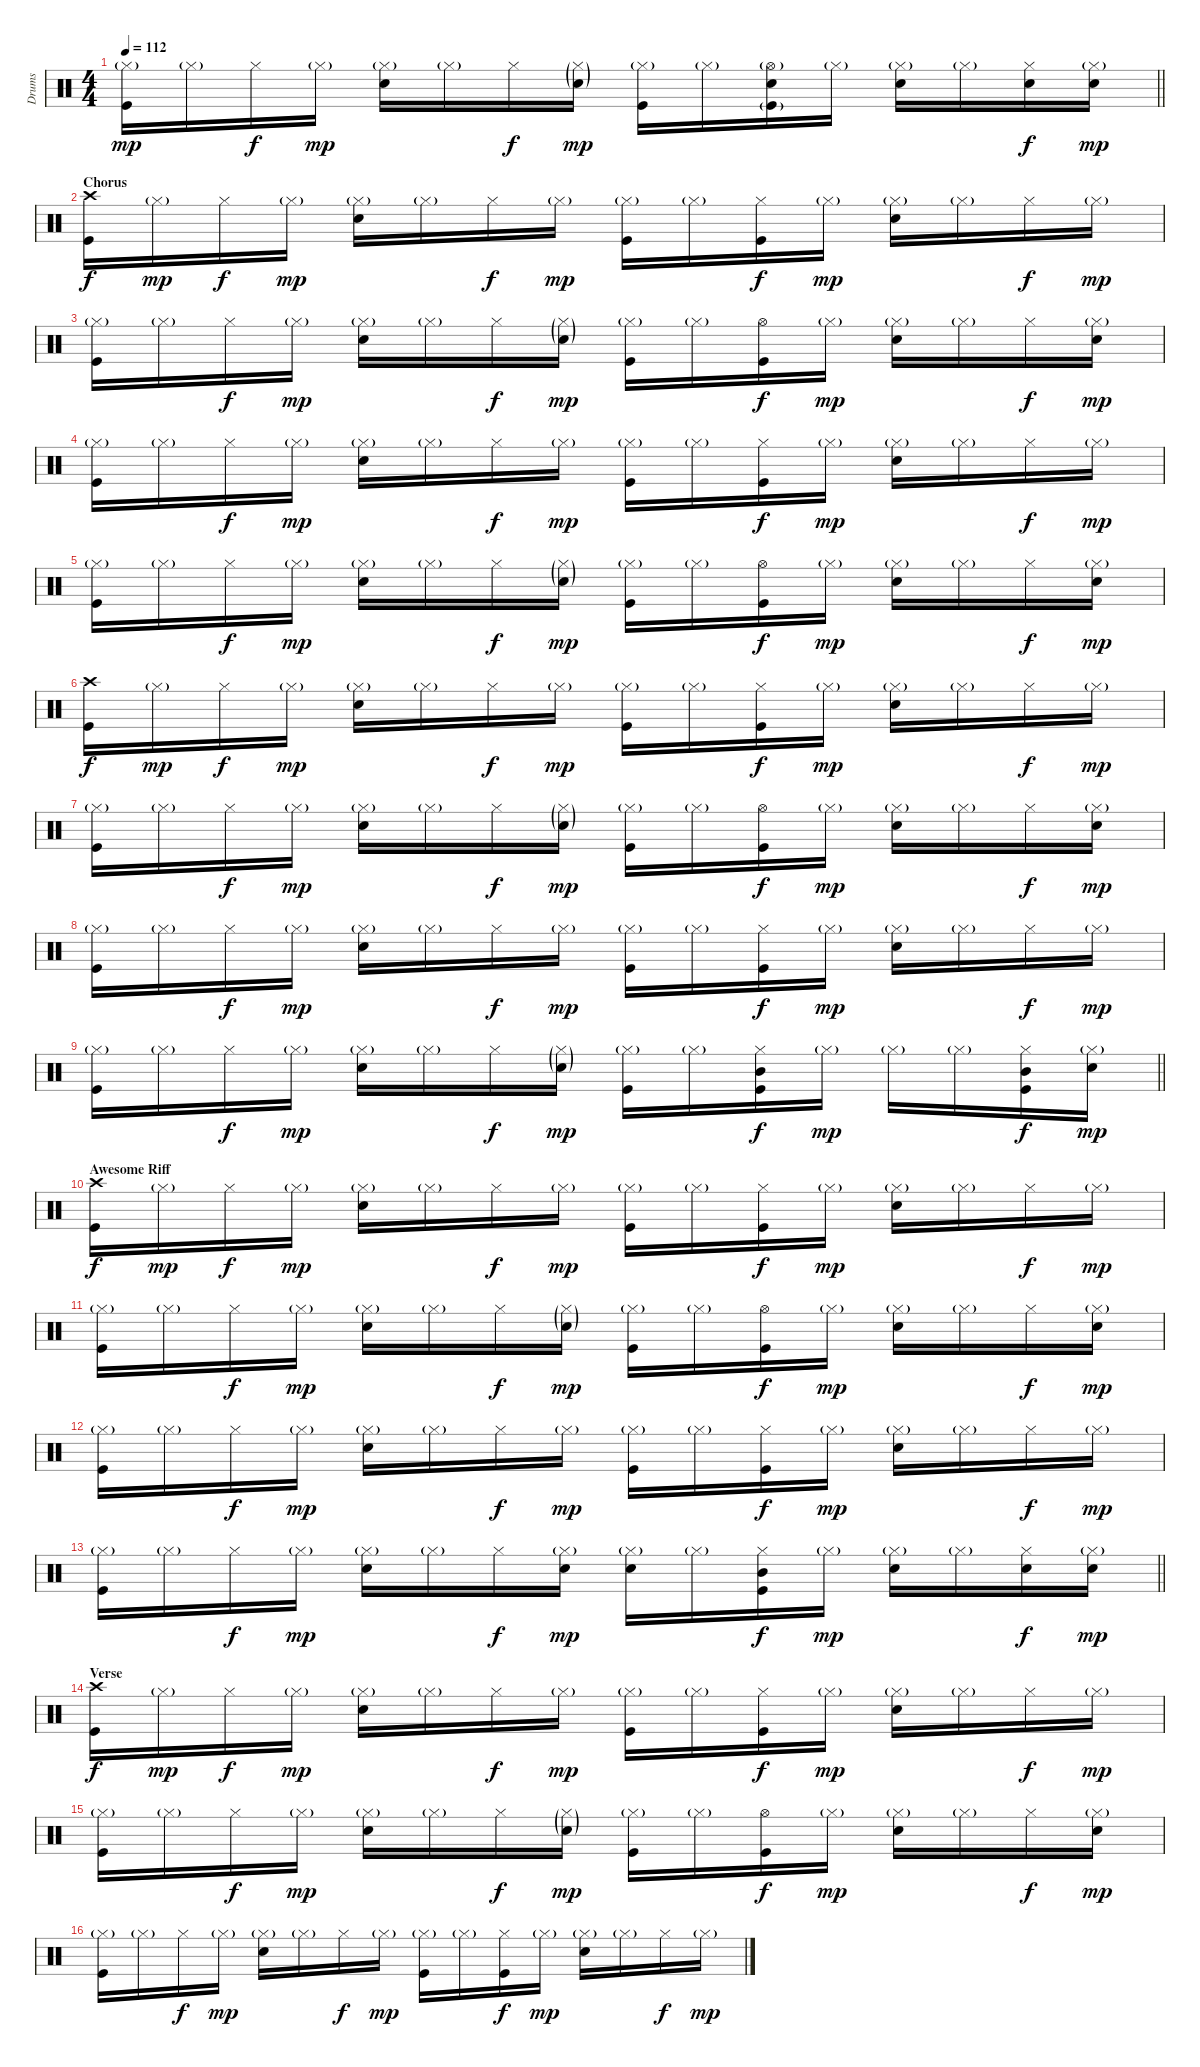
\track ("Drums" "Drums") {instrument percussion}
\staff {score}
\articulation defaults
\ts (4 4)
\tempo 112
\clef neutral
\barLineRight lightlight
\ks c
("Hi-Hat (closed)"{g} "Kick (hit)").16{dy mp} "Hi-Hat (closed)"{g}.16 "Hi-Hat (closed)".16{dy f} "Hi-Hat (closed)"{g}.16{dy mp} ("Hi-Hat (closed)"{g} "Snare (hit) 2").16 "Hi-Hat (closed)"{g}.16 "Hi-Hat (closed)".16{dy f} ("Hi-Hat (closed)"{g} "Snare (hit) 2"{g}).16{dy mp} ("Hi-Hat (closed)"{g} "Kick (hit)").16 "Hi-Hat (closed)"{g}.16 ("Hi-Hat (open)"{g} "Snare (hit) 2" "Kick (hit)"{g}).16 "Hi-Hat (closed)"{g}.16 ("Hi-Hat (closed)"{g} "Snare (hit) 2").16 "Hi-Hat (closed)"{g}.16 ("Hi-Hat (closed)" "Snare (hit) 2").16{dy f} ("Hi-Hat (closed)"{g} "Snare (hit) 2").16{dy mp} |
\section ("" "Chorus")
("Crash high (hit)" "Kick (hit)").16{dy f} "Hi-Hat (closed)"{g}.16{dy mp} "Hi-Hat (closed)".16{dy f} "Hi-Hat (closed)"{g}.16{dy mp} ("Hi-Hat (closed)"{g} "Snare (hit) 2").16 "Hi-Hat (closed)"{g}.16 "Hi-Hat (closed)".16{dy f} "Hi-Hat (closed)"{g}.16{dy mp} ("Hi-Hat (closed)"{g} "Kick (hit)").16 "Hi-Hat (closed)"{g}.16 ("Hi-Hat (closed)" "Kick (hit)").16{dy f} "Hi-Hat (closed)"{g}.16{dy mp} ("Hi-Hat (closed)"{g} "Snare (hit) 2").16 "Hi-Hat (closed)"{g}.16 "Hi-Hat (closed)".16{dy f} "Hi-Hat (closed)"{g}.16{dy mp} |
("Hi-Hat (closed)"{g} "Kick (hit)").16 "Hi-Hat (closed)"{g}.16 "Hi-Hat (closed)".16{dy f} "Hi-Hat (closed)"{g}.16{dy mp} ("Hi-Hat (closed)"{g} "Snare (hit) 2").16 "Hi-Hat (closed)"{g}.16 "Hi-Hat (closed)".16{dy f} ("Hi-Hat (closed)"{g} "Snare (hit) 2"{g}).16{dy mp} ("Hi-Hat (closed)"{g} "Kick (hit)").16 "Hi-Hat (closed)"{g}.16 ("Hi-Hat (open)" "Kick (hit)").16{dy f} "Hi-Hat (closed)"{g}.16{dy mp} ("Hi-Hat (closed)"{g} "Snare (hit) 2").16 "Hi-Hat (closed)"{g}.16 "Hi-Hat (closed)".16{dy f} ("Hi-Hat (closed)"{g} "Snare (hit) 2").16{dy mp} |
("Hi-Hat (closed)"{g} "Kick (hit)").16 "Hi-Hat (closed)"{g}.16 "Hi-Hat (closed)".16{dy f} "Hi-Hat (closed)"{g}.16{dy mp} ("Hi-Hat (closed)"{g} "Snare (hit) 2").16 "Hi-Hat (closed)"{g}.16 "Hi-Hat (closed)".16{dy f} "Hi-Hat (closed)"{g}.16{dy mp} ("Hi-Hat (closed)"{g} "Kick (hit)").16 "Hi-Hat (closed)"{g}.16 ("Hi-Hat (closed)" "Kick (hit)").16{dy f} "Hi-Hat (closed)"{g}.16{dy mp} ("Hi-Hat (closed)"{g} "Snare (hit) 2").16 "Hi-Hat (closed)"{g}.16 "Hi-Hat (closed)".16{dy f} "Hi-Hat (closed)"{g}.16{dy mp} |
("Hi-Hat (closed)"{g} "Kick (hit)").16 "Hi-Hat (closed)"{g}.16 "Hi-Hat (closed)".16{dy f} "Hi-Hat (closed)"{g}.16{dy mp} ("Hi-Hat (closed)"{g} "Snare (hit) 2").16 "Hi-Hat (closed)"{g}.16 "Hi-Hat (closed)".16{dy f} ("Hi-Hat (closed)"{g} "Snare (hit) 2"{g}).16{dy mp} ("Hi-Hat (closed)"{g} "Kick (hit)").16 "Hi-Hat (closed)"{g}.16 ("Hi-Hat (open)" "Kick (hit)").16{dy f} "Hi-Hat (closed)"{g}.16{dy mp} ("Hi-Hat (closed)"{g} "Snare (hit) 2").16 "Hi-Hat (closed)"{g}.16 "Hi-Hat (closed)".16{dy f} ("Hi-Hat (closed)"{g} "Snare (hit) 2").16{dy mp} |
("Crash high (hit)" "Kick (hit)").16{dy f} "Hi-Hat (closed)"{g}.16{dy mp} "Hi-Hat (closed)".16{dy f} "Hi-Hat (closed)"{g}.16{dy mp} ("Hi-Hat (closed)"{g} "Snare (hit) 2").16 "Hi-Hat (closed)"{g}.16 "Hi-Hat (closed)".16{dy f} "Hi-Hat (closed)"{g}.16{dy mp} ("Hi-Hat (closed)"{g} "Kick (hit)").16 "Hi-Hat (closed)"{g}.16 ("Hi-Hat (closed)" "Kick (hit)").16{dy f} "Hi-Hat (closed)"{g}.16{dy mp} ("Hi-Hat (closed)"{g} "Snare (hit) 2").16 "Hi-Hat (closed)"{g}.16 "Hi-Hat (closed)".16{dy f} "Hi-Hat (closed)"{g}.16{dy mp} |
("Hi-Hat (closed)"{g} "Kick (hit)").16 "Hi-Hat (closed)"{g}.16 "Hi-Hat (closed)".16{dy f} "Hi-Hat (closed)"{g}.16{dy mp} ("Hi-Hat (closed)"{g} "Snare (hit) 2").16 "Hi-Hat (closed)"{g}.16 "Hi-Hat (closed)".16{dy f} ("Hi-Hat (closed)"{g} "Snare (hit) 2"{g}).16{dy mp} ("Hi-Hat (closed)"{g} "Kick (hit)").16 "Hi-Hat (closed)"{g}.16 ("Hi-Hat (open)" "Kick (hit)").16{dy f} "Hi-Hat (closed)"{g}.16{dy mp} ("Hi-Hat (closed)"{g} "Snare (hit) 2").16 "Hi-Hat (closed)"{g}.16 "Hi-Hat (closed)".16{dy f} ("Hi-Hat (closed)"{g} "Snare (hit) 2").16{dy mp} |
("Hi-Hat (closed)"{g} "Kick (hit)").16 "Hi-Hat (closed)"{g}.16 "Hi-Hat (closed)".16{dy f} "Hi-Hat (closed)"{g}.16{dy mp} ("Hi-Hat (closed)"{g} "Snare (hit) 2").16 "Hi-Hat (closed)"{g}.16 "Hi-Hat (closed)".16{dy f} "Hi-Hat (closed)"{g}.16{dy mp} ("Hi-Hat (closed)"{g} "Kick (hit)").16 "Hi-Hat (closed)"{g}.16 ("Hi-Hat (closed)" "Kick (hit)").16{dy f} "Hi-Hat (closed)"{g}.16{dy mp} ("Hi-Hat (closed)"{g} "Snare (hit) 2").16 "Hi-Hat (closed)"{g}.16 "Hi-Hat (closed)".16{dy f} "Hi-Hat (closed)"{g}.16{dy mp} |
\barLineRight lightlight
("Hi-Hat (closed)"{g} "Kick (hit)").16 "Hi-Hat (closed)"{g}.16 "Hi-Hat (closed)".16{dy f} "Hi-Hat (closed)"{g}.16{dy mp} ("Hi-Hat (closed)"{g} "Snare (hit) 2").16 "Hi-Hat (closed)"{g}.16 "Hi-Hat (closed)".16{dy f} ("Hi-Hat (closed)"{g} "Snare (hit) 2"{g}).16{dy mp} ("Hi-Hat (closed)"{g} "Kick (hit)").16 "Hi-Hat (closed)"{g}.16 ("Hi-Hat (closed)" "Mid Tom (hit)" "Kick (hit)").16{dy f} "Hi-Hat (closed)"{g}.16{dy mp} "Hi-Hat (closed)"{g}.16 "Hi-Hat (closed)"{g}.16 ("Hi-Hat (closed)" "Mid Tom (hit)" "Kick (hit)").16{dy f} ("Hi-Hat (closed)"{g} "Snare (hit) 2").16{dy mp} |
\section ("" "Awesome Riff")
("Crash high (hit)" "Kick (hit)").16{dy f} "Hi-Hat (closed)"{g}.16{dy mp} "Hi-Hat (closed)".16{dy f} "Hi-Hat (closed)"{g}.16{dy mp} ("Hi-Hat (closed)"{g} "Snare (hit) 2").16 "Hi-Hat (closed)"{g}.16 "Hi-Hat (closed)".16{dy f} "Hi-Hat (closed)"{g}.16{dy mp} ("Hi-Hat (closed)"{g} "Kick (hit)").16 "Hi-Hat (closed)"{g}.16 ("Hi-Hat (closed)" "Kick (hit)").16{dy f} "Hi-Hat (closed)"{g}.16{dy mp} ("Hi-Hat (closed)"{g} "Snare (hit) 2").16 "Hi-Hat (closed)"{g}.16 "Hi-Hat (closed)".16{dy f} "Hi-Hat (closed)"{g}.16{dy mp} |
("Hi-Hat (closed)"{g} "Kick (hit)").16 "Hi-Hat (closed)"{g}.16 "Hi-Hat (closed)".16{dy f} "Hi-Hat (closed)"{g}.16{dy mp} ("Hi-Hat (closed)"{g} "Snare (hit) 2").16 "Hi-Hat (closed)"{g}.16 "Hi-Hat (closed)".16{dy f} ("Hi-Hat (closed)"{g} "Snare (hit) 2"{g}).16{dy mp} ("Hi-Hat (closed)"{g} "Kick (hit)").16 "Hi-Hat (closed)"{g}.16 ("Hi-Hat (open)" "Kick (hit)").16{dy f} "Hi-Hat (closed)"{g}.16{dy mp} ("Hi-Hat (closed)"{g} "Snare (hit) 2").16 "Hi-Hat (closed)"{g}.16 "Hi-Hat (closed)".16{dy f} ("Hi-Hat (closed)"{g} "Snare (hit) 2").16{dy mp} |
("Hi-Hat (closed)"{g} "Kick (hit)").16 "Hi-Hat (closed)"{g}.16 "Hi-Hat (closed)".16{dy f} "Hi-Hat (closed)"{g}.16{dy mp} ("Hi-Hat (closed)"{g} "Snare (hit) 2").16 "Hi-Hat (closed)"{g}.16 "Hi-Hat (closed)".16{dy f} "Hi-Hat (closed)"{g}.16{dy mp} ("Hi-Hat (closed)"{g} "Kick (hit)").16 "Hi-Hat (closed)"{g}.16 ("Hi-Hat (closed)" "Kick (hit)").16{dy f} "Hi-Hat (closed)"{g}.16{dy mp} ("Hi-Hat (closed)"{g} "Snare (hit) 2").16 "Hi-Hat (closed)"{g}.16 "Hi-Hat (closed)".16{dy f} "Hi-Hat (closed)"{g}.16{dy mp} |
\barLineRight lightlight
("Hi-Hat (closed)"{g} "Kick (hit)").16 "Hi-Hat (closed)"{g}.16 "Hi-Hat (closed)".16{dy f} "Hi-Hat (closed)"{g}.16{dy mp} ("Hi-Hat (closed)"{g} "Snare (hit) 2").16 "Hi-Hat (closed)"{g}.16 "Hi-Hat (closed)".16{dy f} ("Hi-Hat (closed)"{g} "Snare (hit) 2").16{dy mp} ("Hi-Hat (closed)"{g} "Snare (hit) 2").16 "Hi-Hat (closed)"{g}.16 ("Hi-Hat (closed)" "Mid Tom (hit)" "Kick (hit)").16{dy f} "Hi-Hat (closed)"{g}.16{dy mp} ("Hi-Hat (closed)"{g} "Snare (hit) 2").16 "Hi-Hat (closed)"{g}.16 ("Hi-Hat (closed)" "Snare (hit) 2").16{dy f} ("Hi-Hat (closed)"{g} "Snare (hit) 2").16{dy mp} |
\section ("" "Verse")
("Crash high (hit)" "Kick (hit)").16{dy f} "Hi-Hat (closed)"{g}.16{dy mp} "Hi-Hat (closed)".16{dy f} "Hi-Hat (closed)"{g}.16{dy mp} ("Hi-Hat (closed)"{g} "Snare (hit) 2").16 "Hi-Hat (closed)"{g}.16 "Hi-Hat (closed)".16{dy f} "Hi-Hat (closed)"{g}.16{dy mp} ("Hi-Hat (closed)"{g} "Kick (hit)").16 "Hi-Hat (closed)"{g}.16 ("Hi-Hat (closed)" "Kick (hit)").16{dy f} "Hi-Hat (closed)"{g}.16{dy mp} ("Hi-Hat (closed)"{g} "Snare (hit) 2").16 "Hi-Hat (closed)"{g}.16 "Hi-Hat (closed)".16{dy f} "Hi-Hat (closed)"{g}.16{dy mp} |
("Hi-Hat (closed)"{g} "Kick (hit)").16 "Hi-Hat (closed)"{g}.16 "Hi-Hat (closed)".16{dy f} "Hi-Hat (closed)"{g}.16{dy mp} ("Hi-Hat (closed)"{g} "Snare (hit) 2").16 "Hi-Hat (closed)"{g}.16 "Hi-Hat (closed)".16{dy f} ("Hi-Hat (closed)"{g} "Snare (hit) 2"{g}).16{dy mp} ("Hi-Hat (closed)"{g} "Kick (hit)").16 "Hi-Hat (closed)"{g}.16 ("Hi-Hat (open)" "Kick (hit)").16{dy f} "Hi-Hat (closed)"{g}.16{dy mp} ("Hi-Hat (closed)"{g} "Snare (hit) 2").16 "Hi-Hat (closed)"{g}.16 "Hi-Hat (closed)".16{dy f} ("Hi-Hat (closed)"{g} "Snare (hit) 2").16{dy mp} |
("Hi-Hat (closed)"{g} "Kick (hit)").16 "Hi-Hat (closed)"{g}.16 "Hi-Hat (closed)".16{dy f} "Hi-Hat (closed)"{g}.16{dy mp} ("Hi-Hat (closed)"{g} "Snare (hit) 2").16 "Hi-Hat (closed)"{g}.16 "Hi-Hat (closed)".16{dy f} "Hi-Hat (closed)"{g}.16{dy mp} ("Hi-Hat (closed)"{g} "Kick (hit)").16 "Hi-Hat (closed)"{g}.16 ("Hi-Hat (closed)" "Kick (hit)").16{dy f} "Hi-Hat (closed)"{g}.16{dy mp} ("Hi-Hat (closed)"{g} "Snare (hit) 2").16 "Hi-Hat (closed)"{g}.16 "Hi-Hat (closed)".16{dy f} "Hi-Hat (closed)"{g}.16{dy mp}
